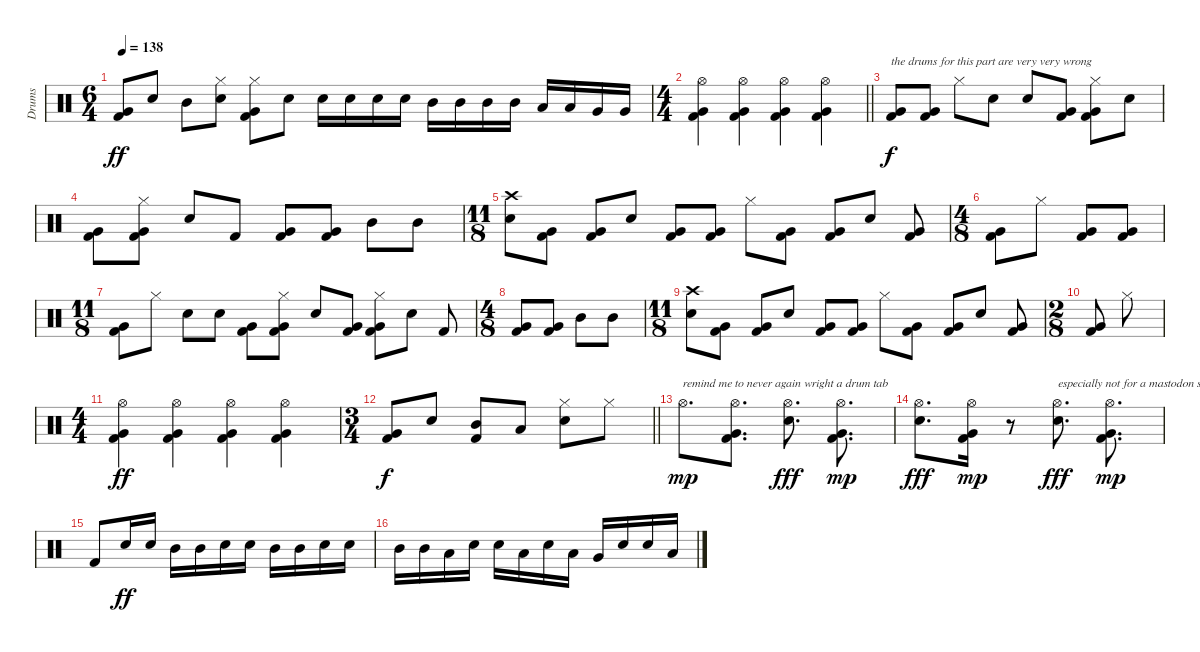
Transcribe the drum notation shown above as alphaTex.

\track ("Drums" "Drums") {instrument percussion}
\staff {score}
\articulation defaults
\ts (6 4)
\tempo 138
\clef neutral
\ks c
("Very Low Tom (hit)" "Kick (hit) 2").8{dy ff} "Electric Snare (hit)".8 "Mid Tom (hit)".8 ("Hi-Hat (closed)" "Electric Snare (hit)").8 ("Hi-Hat (closed)" "Very Low Tom (hit)" "Kick (hit) 2").8 "Electric Snare (hit)".8 "Electric Snare (hit)".16 "Electric Snare (hit)".16 "Electric Snare (hit)".16 "Electric Snare (hit)".16 "Mid Tom (hit)".16 "Mid Tom (hit)".16 "Mid Tom (hit)".16 "Mid Tom (hit)".16 "Low Tom (hit)".16 "Low Tom (hit)".16 "Very Low Tom (hit)".16 "Very Low Tom (hit)".16 |
\ts (4 4)
\barLineRight lightlight
("Hi-Hat (open)" "Very Low Tom (hit)" "Kick (hit) 2").4 ("Hi-Hat (open)" "Very Low Tom (hit)" "Kick (hit) 2").4 ("Hi-Hat (open)" "Very Low Tom (hit)" "Kick (hit) 2").4 ("Hi-Hat (open)" "Very Low Tom (hit)" "Kick (hit) 2").4 |
("Very Low Tom (hit)" "Kick (hit) 2").8{txt "the drums for this part are very very wrong" dy f} ("Very Low Tom (hit)" "Kick (hit) 2").8 "Hi-Hat (closed)".8 "Electric Snare (hit)".8 "Electric Snare (hit)".8 ("Very Low Tom (hit)" "Kick (hit) 2").8 ("Hi-Hat (closed)" "Very Low Tom (hit)" "Kick (hit) 2").8 "Electric Snare (hit)".8 |
("Very Low Tom (hit)" "Kick (hit) 2").8 ("Hi-Hat (closed)" "Very Low Tom (hit)" "Kick (hit) 2").8 "Electric Snare (hit)".8 "Kick (hit) 2".8 ("Very Low Tom (hit)" "Kick (hit) 2").8 ("Very Low Tom (hit)" "Kick (hit) 2").8 "Mid Tom (hit)".8 "Mid Tom (hit)".8 |
\ts (11 8)
("Crash high (hit)" "Electric Snare (hit)").8 ("Very Low Tom (hit)" "Kick (hit) 2").8 ("Very Low Tom (hit)" "Kick (hit) 2").8 "Electric Snare (hit)".8 ("Very Low Tom (hit)" "Kick (hit) 2").8 ("Very Low Tom (hit)" "Kick (hit) 2").8 "Hi-Hat (closed)".8 ("Very Low Tom (hit)" "Kick (hit) 2").8 ("Very Low Tom (hit)" "Kick (hit) 2").8 "Electric Snare (hit)".8 ("Very Low Tom (hit)" "Kick (hit) 2").8 |
\ts (4 8)
("Very Low Tom (hit)" "Kick (hit) 2").8 "Hi-Hat (closed)".8 ("Very Low Tom (hit)" "Kick (hit) 2").8 ("Very Low Tom (hit)" "Kick (hit) 2").8 |
\ts (11 8)
("Very Low Tom (hit)" "Kick (hit) 2").8 "Hi-Hat (closed)".8 "Electric Snare (hit)".8 "Electric Snare (hit)".8 ("Very Low Tom (hit)" "Kick (hit) 2").8 ("Hi-Hat (closed)" "Very Low Tom (hit)" "Kick (hit) 2").8 "Electric Snare (hit)".8 ("Very Low Tom (hit)" "Kick (hit) 2").8 ("Hi-Hat (closed)" "Very Low Tom (hit)" "Kick (hit) 2").8 "Electric Snare (hit)".8 "Kick (hit) 2".8 |
\ts (4 8)
("Very Low Tom (hit)" "Kick (hit) 2").8 ("Very Low Tom (hit)" "Kick (hit) 2").8 "Mid Tom (hit)".8 "Mid Tom (hit)".8 |
\ts (11 8)
("Crash high (hit)" "Electric Snare (hit)").8 ("Very Low Tom (hit)" "Kick (hit) 2").8 ("Very Low Tom (hit)" "Kick (hit) 2").8 "Electric Snare (hit)".8 ("Very Low Tom (hit)" "Kick (hit) 2").8 ("Very Low Tom (hit)" "Kick (hit) 2").8 "Hi-Hat (closed)".8 ("Very Low Tom (hit)" "Kick (hit) 2").8 ("Very Low Tom (hit)" "Kick (hit) 2").8 "Electric Snare (hit)".8 ("Very Low Tom (hit)" "Kick (hit) 2").8 |
\ts (2 8)
("Very Low Tom (hit)" "Kick (hit) 2").8 "Hi-Hat (closed)".8 |
\ts (4 4)
("Hi-Hat (open)" "Very Low Tom (hit)" "Kick (hit) 2").4{dy ff} ("Hi-Hat (open)" "Very Low Tom (hit)" "Kick (hit) 2").4 ("Hi-Hat (open)" "Very Low Tom (hit)" "Kick (hit) 2").4 ("Hi-Hat (open)" "Very Low Tom (hit)" "Kick (hit) 2").4 |
\ts (3 4)
\barLineRight lightlight
("Very Low Tom (hit)" "Kick (hit) 2").8{dy f} "Electric Snare (hit)".8 ("Mid Tom (hit)" "Kick (hit) 2").8 "Low Tom (hit)".8 ("Hi-Hat (closed)" "Electric Snare (hit)").8 "Hi-Hat (closed)".8 |
"Hi-Hat (open)".8{d txt "remind me to never again wright a drum tab" dy mp} ("Hi-Hat (open)" "Very Low Tom (hit)" "Kick (hit) 2").8{d} ("Hi-Hat (open)" "Electric Snare (hit)").8{d dy fff} ("Hi-Hat (open)" "Very Low Tom (hit)" "Kick (hit) 2").8{d dy mp} |
("Hi-Hat (open)" "Electric Snare (hit)").8{d dy fff} ("Hi-Hat (open)" "Very Low Tom (hit)" "Kick (hit) 2").16{dy mp} r.8 ("Hi-Hat (open)" "Electric Snare (hit)").8{d txt "especially not for a mastodon song" dy fff} ("Hi-Hat (open)" "Very Low Tom (hit)" "Kick (hit) 2").8{d dy mp} |
"Kick (hit) 2".8 "Electric Snare (hit)".16{dy ff} "Electric Snare (hit)".16 "Mid Tom (hit)".16 "Mid Tom (hit)".16 "Electric Snare (hit)".16 "Electric Snare (hit)".16 "Mid Tom (hit)".16 "Mid Tom (hit)".16 "Electric Snare (hit)".16 "Electric Snare (hit)".16 |
"Mid Tom (hit)".16 "Mid Tom (hit)".16 "Low Tom (hit)".16 "Electric Snare (hit)".16 "Electric Snare (hit)".16 "Low Tom (hit)".16 "Electric Snare (hit)".16 "Low Tom (hit)".16 "Very Low Tom (hit)".16 "Electric Snare (hit)".16 "Electric Snare (hit)".16 "Low Tom (hit)".16
